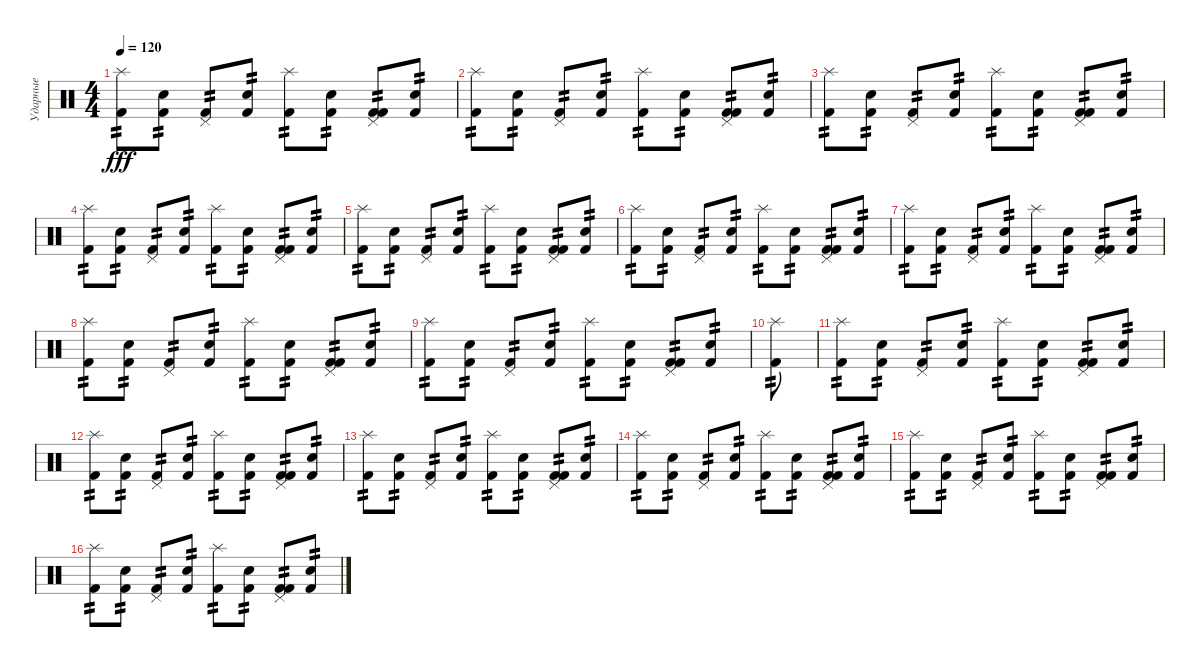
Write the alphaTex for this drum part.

\track ("Ударные" "Ударные") {instrument percussion}
\staff {score}
\articulation defaults
\ts (4 4)
\tempo 120
\clef neutral
\ks c
("Splash (hit)" "Kick (hit) 2").8{tp 2 dy fff} ("Kick (hit) 2" "Snare (hit) 2").8{tp 2} ("Pedal Hi-Hat (hit)" "Kick (hit) 2").8{tp 2} ("Kick (hit) 2" "Snare (hit) 2").8{tp 2} ("Splash (hit)" "Kick (hit) 2").8{tp 2} ("Kick (hit) 2" "Snare (hit) 2").8{tp 2} ("Kick (hit) 2" "Pedal Hi-Hat (hit)" "Kick (hit) 2").8{tp 2} ("Kick (hit) 2" "Snare (hit) 2").8{tp 2} |
("Splash (hit)" "Kick (hit) 2").8{tp 2} ("Kick (hit) 2" "Snare (hit) 2").8{tp 2} ("Pedal Hi-Hat (hit)" "Kick (hit) 2").8{tp 2} ("Kick (hit) 2" "Snare (hit) 2").8{tp 2} ("Splash (hit)" "Kick (hit) 2").8{tp 2} ("Kick (hit) 2" "Snare (hit) 2").8{tp 2} ("Kick (hit) 2" "Pedal Hi-Hat (hit)" "Kick (hit) 2").8{tp 2} ("Kick (hit) 2" "Snare (hit) 2").8{tp 2} |
("Splash (hit)" "Kick (hit) 2").8{tp 2} ("Kick (hit) 2" "Snare (hit) 2").8{tp 2} ("Pedal Hi-Hat (hit)" "Kick (hit) 2").8{tp 2} ("Kick (hit) 2" "Snare (hit) 2").8{tp 2} ("Splash (hit)" "Kick (hit) 2").8{tp 2} ("Kick (hit) 2" "Snare (hit) 2").8{tp 2} ("Kick (hit) 2" "Pedal Hi-Hat (hit)" "Kick (hit) 2").8{tp 2} ("Kick (hit) 2" "Snare (hit) 2").8{tp 2} |
("Splash (hit)" "Kick (hit) 2").8{tp 2} ("Kick (hit) 2" "Snare (hit) 2").8{tp 2} ("Pedal Hi-Hat (hit)" "Kick (hit) 2").8{tp 2} ("Kick (hit) 2" "Snare (hit) 2").8{tp 2} ("Splash (hit)" "Kick (hit) 2").8{tp 2} ("Kick (hit) 2" "Snare (hit) 2").8{tp 2} ("Kick (hit) 2" "Pedal Hi-Hat (hit)" "Kick (hit) 2").8{tp 2} ("Kick (hit) 2" "Snare (hit) 2").8{tp 2} |
("Splash (hit)" "Kick (hit) 2").8{tp 2} ("Kick (hit) 2" "Snare (hit) 2").8{tp 2} ("Pedal Hi-Hat (hit)" "Kick (hit) 2").8{tp 2} ("Kick (hit) 2" "Snare (hit) 2").8{tp 2} ("Splash (hit)" "Kick (hit) 2").8{tp 2} ("Kick (hit) 2" "Snare (hit) 2").8{tp 2} ("Kick (hit) 2" "Pedal Hi-Hat (hit)" "Kick (hit) 2").8{tp 2} ("Kick (hit) 2" "Snare (hit) 2").8{tp 2} |
("Splash (hit)" "Kick (hit) 2").8{tp 2} ("Kick (hit) 2" "Snare (hit) 2").8{tp 2} ("Pedal Hi-Hat (hit)" "Kick (hit) 2").8{tp 2} ("Kick (hit) 2" "Snare (hit) 2").8{tp 2} ("Splash (hit)" "Kick (hit) 2").8{tp 2} ("Kick (hit) 2" "Snare (hit) 2").8{tp 2} ("Kick (hit) 2" "Pedal Hi-Hat (hit)" "Kick (hit) 2").8{tp 2} ("Kick (hit) 2" "Snare (hit) 2").8{tp 2} |
("Splash (hit)" "Kick (hit) 2").8{tp 2} ("Kick (hit) 2" "Snare (hit) 2").8{tp 2} ("Pedal Hi-Hat (hit)" "Kick (hit) 2").8{tp 2} ("Kick (hit) 2" "Snare (hit) 2").8{tp 2} ("Splash (hit)" "Kick (hit) 2").8{tp 2} ("Kick (hit) 2" "Snare (hit) 2").8{tp 2} ("Kick (hit) 2" "Pedal Hi-Hat (hit)" "Kick (hit) 2").8{tp 2} ("Kick (hit) 2" "Snare (hit) 2").8{tp 2} |
("Splash (hit)" "Kick (hit) 2").8{tp 2} ("Kick (hit) 2" "Snare (hit) 2").8{tp 2} ("Pedal Hi-Hat (hit)" "Kick (hit) 2").8{tp 2} ("Kick (hit) 2" "Snare (hit) 2").8{tp 2} ("Splash (hit)" "Kick (hit) 2").8{tp 2} ("Kick (hit) 2" "Snare (hit) 2").8{tp 2} ("Kick (hit) 2" "Pedal Hi-Hat (hit)" "Kick (hit) 2").8{tp 2} ("Kick (hit) 2" "Snare (hit) 2").8{tp 2} |
("Splash (hit)" "Kick (hit) 2").8{tp 2} ("Kick (hit) 2" "Snare (hit) 2").8{tp 2} ("Pedal Hi-Hat (hit)" "Kick (hit) 2").8{tp 2} ("Kick (hit) 2" "Snare (hit) 2").8{tp 2} ("Splash (hit)" "Kick (hit) 2").8{tp 2} ("Kick (hit) 2" "Snare (hit) 2").8{tp 2} ("Kick (hit) 2" "Pedal Hi-Hat (hit)" "Kick (hit) 2").8{tp 2} ("Kick (hit) 2" "Snare (hit) 2").8{tp 2} |
("Splash (hit)" "Kick (hit) 2").8{tp 2} |
("Splash (hit)" "Kick (hit) 2").8{tp 2} ("Kick (hit) 2" "Snare (hit) 2").8{tp 2} ("Pedal Hi-Hat (hit)" "Kick (hit) 2").8{tp 2} ("Kick (hit) 2" "Snare (hit) 2").8{tp 2} ("Splash (hit)" "Kick (hit) 2").8{tp 2} ("Kick (hit) 2" "Snare (hit) 2").8{tp 2} ("Kick (hit) 2" "Pedal Hi-Hat (hit)" "Kick (hit) 2").8{tp 2} ("Kick (hit) 2" "Snare (hit) 2").8{tp 2} |
("Splash (hit)" "Kick (hit) 2").8{tp 2} ("Kick (hit) 2" "Snare (hit) 2").8{tp 2} ("Pedal Hi-Hat (hit)" "Kick (hit) 2").8{tp 2} ("Kick (hit) 2" "Snare (hit) 2").8{tp 2} ("Splash (hit)" "Kick (hit) 2").8{tp 2} ("Kick (hit) 2" "Snare (hit) 2").8{tp 2} ("Kick (hit) 2" "Pedal Hi-Hat (hit)" "Kick (hit) 2").8{tp 2} ("Kick (hit) 2" "Snare (hit) 2").8{tp 2} |
("Splash (hit)" "Kick (hit) 2").8{tp 2} ("Kick (hit) 2" "Snare (hit) 2").8{tp 2} ("Pedal Hi-Hat (hit)" "Kick (hit) 2").8{tp 2} ("Kick (hit) 2" "Snare (hit) 2").8{tp 2} ("Splash (hit)" "Kick (hit) 2").8{tp 2} ("Kick (hit) 2" "Snare (hit) 2").8{tp 2} ("Kick (hit) 2" "Pedal Hi-Hat (hit)" "Kick (hit) 2").8{tp 2} ("Kick (hit) 2" "Snare (hit) 2").8{tp 2} |
("Splash (hit)" "Kick (hit) 2").8{tp 2} ("Kick (hit) 2" "Snare (hit) 2").8{tp 2} ("Pedal Hi-Hat (hit)" "Kick (hit) 2").8{tp 2} ("Kick (hit) 2" "Snare (hit) 2").8{tp 2} ("Splash (hit)" "Kick (hit) 2").8{tp 2} ("Kick (hit) 2" "Snare (hit) 2").8{tp 2} ("Kick (hit) 2" "Pedal Hi-Hat (hit)" "Kick (hit) 2").8{tp 2} ("Kick (hit) 2" "Snare (hit) 2").8{tp 2} |
("Splash (hit)" "Kick (hit) 2").8{tp 2} ("Kick (hit) 2" "Snare (hit) 2").8{tp 2} ("Pedal Hi-Hat (hit)" "Kick (hit) 2").8{tp 2} ("Kick (hit) 2" "Snare (hit) 2").8{tp 2} ("Splash (hit)" "Kick (hit) 2").8{tp 2} ("Kick (hit) 2" "Snare (hit) 2").8{tp 2} ("Kick (hit) 2" "Pedal Hi-Hat (hit)" "Kick (hit) 2").8{tp 2} ("Kick (hit) 2" "Snare (hit) 2").8{tp 2} |
("Splash (hit)" "Kick (hit) 2").8{tp 2} ("Kick (hit) 2" "Snare (hit) 2").8{tp 2} ("Pedal Hi-Hat (hit)" "Kick (hit) 2").8{tp 2} ("Kick (hit) 2" "Snare (hit) 2").8{tp 2} ("Splash (hit)" "Kick (hit) 2").8{tp 2} ("Kick (hit) 2" "Snare (hit) 2").8{tp 2} ("Kick (hit) 2" "Pedal Hi-Hat (hit)" "Kick (hit) 2").8{tp 2} ("Kick (hit) 2" "Snare (hit) 2").8{tp 2}
